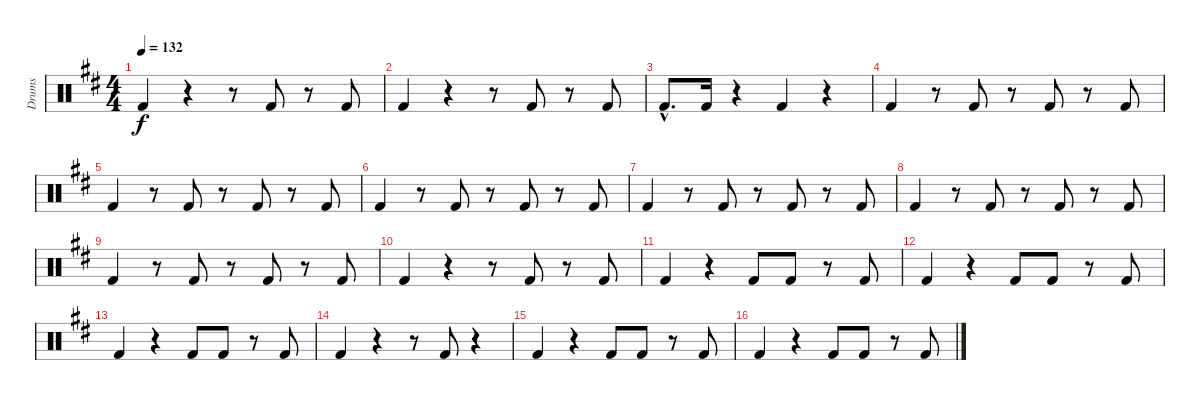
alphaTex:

\track ("Drums" "Drums") {instrument percussion}
\staff {score}
\articulation defaults
\ts (4 4)
\tempo 132
\clef neutral
\ks d "Kick (hit) 2".4{dy f}
r.4 r.8 "Kick (hit) 2".8 r.8 "Kick (hit) 2".8 |
"Kick (hit) 2".4 r.4 r.8 "Kick (hit) 2".8 r.8 "Kick (hit) 2".8 |
"Kick (hit) 2"{hac}.8{d} "Kick (hit) 2".16 r.4 "Kick (hit) 2".4 r.4 |
"Kick (hit) 2".4 r.8 "Kick (hit) 2".8 r.8 "Kick (hit) 2".8 r.8 "Kick (hit) 2".8 |
"Kick (hit) 2".4 r.8 "Kick (hit) 2".8 r.8 "Kick (hit) 2".8 r.8 "Kick (hit) 2".8 |
"Kick (hit) 2".4 r.8 "Kick (hit) 2".8 r.8 "Kick (hit) 2".8 r.8 "Kick (hit) 2".8 |
"Kick (hit) 2".4 r.8 "Kick (hit) 2".8 r.8 "Kick (hit) 2".8 r.8 "Kick (hit) 2".8 |
"Kick (hit) 2".4 r.8 "Kick (hit) 2".8 r.8 "Kick (hit) 2".8 r.8 "Kick (hit) 2".8 |
"Kick (hit) 2".4 r.8 "Kick (hit) 2".8 r.8 "Kick (hit) 2".8 r.8 "Kick (hit) 2".8 |
"Kick (hit) 2".4 r.4 r.8 "Kick (hit) 2".8 r.8 "Kick (hit) 2".8 |
"Kick (hit) 2".4 r.4 "Kick (hit) 2".8 "Kick (hit) 2".8 r.8 "Kick (hit) 2".8 |
"Kick (hit) 2".4 r.4 "Kick (hit) 2".8 "Kick (hit) 2".8 r.8 "Kick (hit) 2".8 |
"Kick (hit) 2".4 r.4 "Kick (hit) 2".8 "Kick (hit) 2".8 r.8 "Kick (hit) 2".8 |
"Kick (hit) 2".4 r.4 r.8 "Kick (hit) 2".8 r.4 |
"Kick (hit) 2".4 r.4 "Kick (hit) 2".8 "Kick (hit) 2".8 r.8 "Kick (hit) 2".8 |
"Kick (hit) 2".4 r.4 "Kick (hit) 2".8 "Kick (hit) 2".8 r.8 "Kick (hit) 2".8
